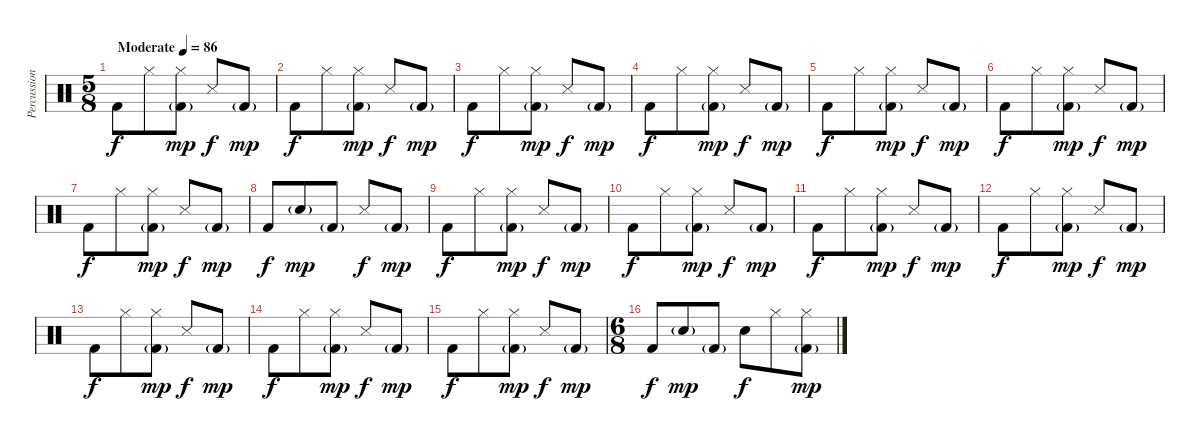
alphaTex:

\track ("Percussion" "Percussion") {instrument percussion}
\staff {score}
\articulation defaults
\ts (5 8)
\tempo (86 "Moderate")
\clef neutral
\ks c "Kick (hit) 2".8{dy f} "Hi-Hat (closed)".8
("Hi-Hat (closed)" "Kick (hit) 2"{g}).8{dy mp} "Snare (side stick) 3".8{dy f} "Kick (hit) 2"{g}.8{dy mp} |
"Kick (hit) 2".8{dy f} "Hi-Hat (closed)".8 ("Hi-Hat (closed)" "Kick (hit) 2"{g}).8{dy mp} "Snare (side stick) 3".8{dy f} "Kick (hit) 2"{g}.8{dy mp} |
"Kick (hit) 2".8{dy f} "Hi-Hat (closed)".8 ("Hi-Hat (closed)" "Kick (hit) 2"{g}).8{dy mp} "Snare (side stick) 3".8{dy f} "Kick (hit) 2"{g}.8{dy mp} |
"Kick (hit) 2".8{dy f} "Hi-Hat (closed)".8 ("Hi-Hat (closed)" "Kick (hit) 2"{g}).8{dy mp} "Snare (side stick) 3".8{dy f} "Kick (hit) 2"{g}.8{dy mp} |
"Kick (hit) 2".8{dy f} "Hi-Hat (closed)".8 ("Hi-Hat (closed)" "Kick (hit) 2"{g}).8{dy mp} "Snare (side stick) 3".8{dy f} "Kick (hit) 2"{g}.8{dy mp} |
"Kick (hit) 2".8{dy f} "Hi-Hat (closed)".8 ("Hi-Hat (closed)" "Kick (hit) 2"{g}).8{dy mp} "Snare (side stick) 3".8{dy f} "Kick (hit) 2"{g}.8{dy mp} |
"Kick (hit) 2".8{dy f} "Hi-Hat (closed)".8 ("Hi-Hat (closed)" "Kick (hit) 2"{g}).8{dy mp} "Snare (side stick) 3".8{dy f} "Kick (hit) 2"{g}.8{dy mp} |
"Kick (hit) 2".8{dy f} "Snare (hit) 2"{g}.8{dy mp} "Kick (hit) 2"{g}.8 "Snare (side stick) 3".8{dy f} "Kick (hit) 2"{g}.8{dy mp} |
"Kick (hit) 2".8{dy f} "Hi-Hat (closed)".8 ("Hi-Hat (closed)" "Kick (hit) 2"{g}).8{dy mp} "Snare (side stick) 3".8{dy f} "Kick (hit) 2"{g}.8{dy mp} |
"Kick (hit) 2".8{dy f} "Hi-Hat (closed)".8 ("Hi-Hat (closed)" "Kick (hit) 2"{g}).8{dy mp} "Snare (side stick) 3".8{dy f} "Kick (hit) 2"{g}.8{dy mp} |
"Kick (hit) 2".8{dy f} "Hi-Hat (closed)".8 ("Hi-Hat (closed)" "Kick (hit) 2"{g}).8{dy mp} "Snare (side stick) 3".8{dy f} "Kick (hit) 2"{g}.8{dy mp} |
"Kick (hit) 2".8{dy f} "Hi-Hat (closed)".8 ("Hi-Hat (closed)" "Kick (hit) 2"{g}).8{dy mp} "Snare (side stick) 3".8{dy f} "Kick (hit) 2"{g}.8{dy mp} |
"Kick (hit) 2".8{dy f} "Hi-Hat (closed)".8 ("Hi-Hat (closed)" "Kick (hit) 2"{g}).8{dy mp} "Snare (side stick) 3".8{dy f} "Kick (hit) 2"{g}.8{dy mp} |
"Kick (hit) 2".8{dy f} "Hi-Hat (closed)".8 ("Hi-Hat (closed)" "Kick (hit) 2"{g}).8{dy mp} "Snare (side stick) 3".8{dy f} "Kick (hit) 2"{g}.8{dy mp} |
"Kick (hit) 2".8{dy f} "Hi-Hat (closed)".8 ("Hi-Hat (closed)" "Kick (hit) 2"{g}).8{dy mp} "Snare (side stick) 3".8{dy f} "Kick (hit) 2"{g}.8{dy mp} |
\ts (6 8)
"Kick (hit) 2".8{dy f} "Snare (hit) 2"{g}.8{dy mp} "Kick (hit) 2"{g}.8 "Snare (hit) 2".8{dy f} "Hi-Hat (closed)".8 ("Hi-Hat (closed)" "Kick (hit) 2"{g}).8{dy mp}
